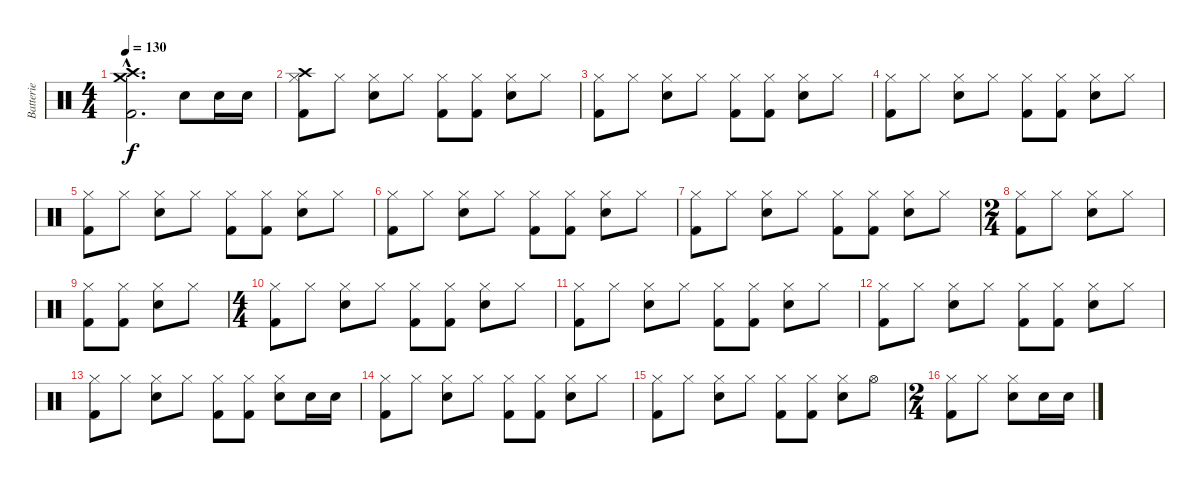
\track ("Batterie" "Batterie") {instrument percussion}
\staff {score}
\articulation defaults
\ts (4 4)
\tempo 130
\clef neutral
\ks c
("Crash high (hit)"{hac} "Crash medium (hit)"{hac} "Kick (hit) 2"{hac}).2{d dy f} "Snare (hit) 2".8 "Snare (hit) 2".16 "Snare (hit) 2".16 |
("Crash high (hit)" "Hi-Hat (closed)" "Kick (hit) 2").8 "Hi-Hat (closed)".8 ("Hi-Hat (closed)" "Snare (hit) 2").8 "Hi-Hat (closed)".8 ("Hi-Hat (closed)" "Kick (hit) 2").8 ("Hi-Hat (closed)" "Kick (hit) 2").8 ("Hi-Hat (closed)" "Snare (hit) 2").8 "Hi-Hat (closed)".8 |
("Hi-Hat (closed)" "Kick (hit) 2").8 "Hi-Hat (closed)".8 ("Hi-Hat (closed)" "Snare (hit) 2").8 "Hi-Hat (closed)".8 ("Hi-Hat (closed)" "Kick (hit) 2").8 ("Hi-Hat (closed)" "Kick (hit) 2").8 ("Hi-Hat (closed)" "Snare (hit) 2").8 "Hi-Hat (closed)".8 |
("Hi-Hat (closed)" "Kick (hit) 2").8 "Hi-Hat (closed)".8 ("Hi-Hat (closed)" "Snare (hit) 2").8 "Hi-Hat (closed)".8 ("Hi-Hat (closed)" "Kick (hit) 2").8 ("Hi-Hat (closed)" "Kick (hit) 2").8 ("Hi-Hat (closed)" "Snare (hit) 2").8 "Hi-Hat (closed)".8 |
("Hi-Hat (closed)" "Kick (hit) 2").8 "Hi-Hat (closed)".8 ("Hi-Hat (closed)" "Snare (hit) 2").8 "Hi-Hat (closed)".8 ("Hi-Hat (closed)" "Kick (hit) 2").8 ("Hi-Hat (closed)" "Kick (hit) 2").8 ("Hi-Hat (closed)" "Snare (hit) 2").8 "Hi-Hat (closed)".8 |
("Hi-Hat (closed)" "Kick (hit) 2").8 "Hi-Hat (closed)".8 ("Hi-Hat (closed)" "Snare (hit) 2").8 "Hi-Hat (closed)".8 ("Hi-Hat (closed)" "Kick (hit) 2").8 ("Hi-Hat (closed)" "Kick (hit) 2").8 ("Hi-Hat (closed)" "Snare (hit) 2").8 "Hi-Hat (closed)".8 |
("Hi-Hat (closed)" "Kick (hit) 2").8 "Hi-Hat (closed)".8 ("Hi-Hat (closed)" "Snare (hit) 2").8 "Hi-Hat (closed)".8 ("Hi-Hat (closed)" "Kick (hit) 2").8 ("Hi-Hat (closed)" "Kick (hit) 2").8 ("Hi-Hat (closed)" "Snare (hit) 2").8 "Hi-Hat (closed)".8 |
\ts (2 4)
("Hi-Hat (closed)" "Kick (hit) 2").8 "Hi-Hat (closed)".8 ("Hi-Hat (closed)" "Snare (hit) 2").8 "Hi-Hat (closed)".8 |
("Hi-Hat (closed)" "Kick (hit) 2").8 ("Hi-Hat (closed)" "Kick (hit) 2").8 ("Hi-Hat (closed)" "Snare (hit) 2").8 "Hi-Hat (closed)".8 |
\ts (4 4)
("Hi-Hat (closed)" "Kick (hit) 2").8 "Hi-Hat (closed)".8 ("Hi-Hat (closed)" "Snare (hit) 2").8 "Hi-Hat (closed)".8 ("Hi-Hat (closed)" "Kick (hit) 2").8 ("Hi-Hat (closed)" "Kick (hit) 2").8 ("Hi-Hat (closed)" "Snare (hit) 2").8 "Hi-Hat (closed)".8 |
("Hi-Hat (closed)" "Kick (hit) 2").8 "Hi-Hat (closed)".8 ("Hi-Hat (closed)" "Snare (hit) 2").8 "Hi-Hat (closed)".8 ("Hi-Hat (closed)" "Kick (hit) 2").8 ("Hi-Hat (closed)" "Kick (hit) 2").8 ("Hi-Hat (closed)" "Snare (hit) 2").8 "Hi-Hat (closed)".8 |
("Hi-Hat (closed)" "Kick (hit) 2").8 "Hi-Hat (closed)".8 ("Hi-Hat (closed)" "Snare (hit) 2").8 "Hi-Hat (closed)".8 ("Hi-Hat (closed)" "Kick (hit) 2").8 ("Hi-Hat (closed)" "Kick (hit) 2").8 ("Hi-Hat (closed)" "Snare (hit) 2").8 "Hi-Hat (closed)".8 |
("Hi-Hat (closed)" "Kick (hit) 2").8 "Hi-Hat (closed)".8 ("Hi-Hat (closed)" "Snare (hit) 2").8 "Hi-Hat (closed)".8 ("Hi-Hat (closed)" "Kick (hit) 2").8 ("Hi-Hat (closed)" "Kick (hit) 2").8 ("Hi-Hat (closed)" "Snare (hit) 2").8 "Snare (hit) 2".16 "Snare (hit) 2".16 |
("Hi-Hat (closed)" "Kick (hit) 2").8 "Hi-Hat (closed)".8 ("Hi-Hat (closed)" "Snare (hit) 2").8 "Hi-Hat (closed)".8 ("Hi-Hat (closed)" "Kick (hit) 2").8 ("Hi-Hat (closed)" "Kick (hit) 2").8 ("Hi-Hat (closed)" "Snare (hit) 2").8 "Hi-Hat (closed)".8 |
("Hi-Hat (closed)" "Kick (hit) 2").8 "Hi-Hat (closed)".8 ("Hi-Hat (closed)" "Snare (hit) 2").8 "Hi-Hat (closed)".8 ("Hi-Hat (closed)" "Kick (hit) 2").8 ("Hi-Hat (closed)" "Kick (hit) 2").8 ("Hi-Hat (closed)" "Snare (hit) 2").8 "Hi-Hat (open)".8 |
\ts (2 4)
("Hi-Hat (closed)" "Kick (hit) 2").8 "Hi-Hat (closed)".8 ("Hi-Hat (closed)" "Snare (hit) 2").8 "Snare (hit) 2".16 "Snare (hit) 2".16
